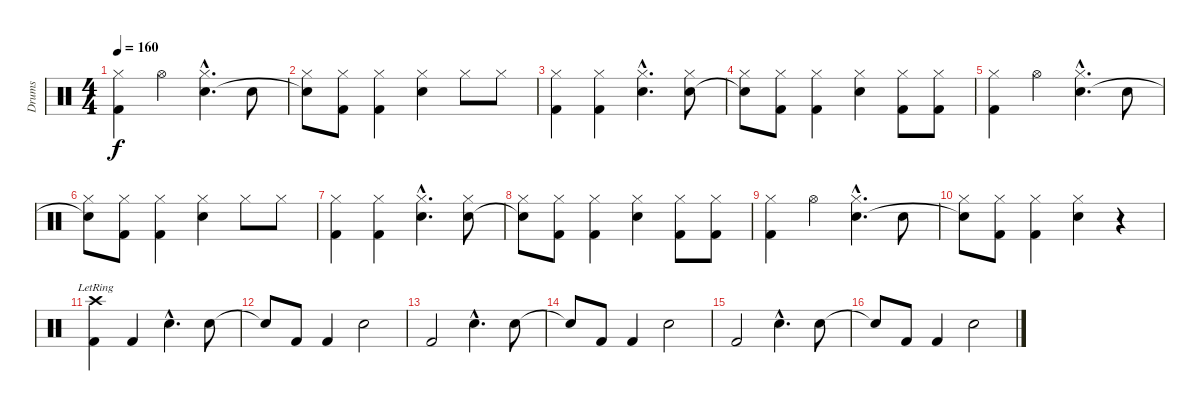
\track ("Drums" "Drums") {instrument percussion}
\staff {score}
\articulation defaults
\ts (4 4)
\tempo 160
\clef neutral
\ks c
("Hi-Hat (closed)" "Kick (hit) 2").4{dy f} "Hi-Hat (open)".4 ("Hi-Hat (closed)"{hac} "Snare (hit) 2"{hac}).4{d} "Snare (hit) 2".8 |
("Hi-Hat (closed)" "Snare (hit) 2"{t}).8 ("Hi-Hat (closed)" "Kick (hit) 2").8 ("Hi-Hat (closed)" "Kick (hit) 2").4 ("Hi-Hat (closed)" "Snare (hit) 2").4 "Hi-Hat (closed)".8 "Hi-Hat (closed)".8 |
("Hi-Hat (closed)" "Kick (hit) 2").4 ("Hi-Hat (closed)" "Kick (hit) 2").4 ("Hi-Hat (closed)"{hac} "Snare (hit) 2"{hac}).4{d} ("Hi-Hat (closed)" "Snare (hit) 2").8 |
("Hi-Hat (closed)" "Snare (hit) 2"{t}).8 ("Hi-Hat (closed)" "Kick (hit) 2").8 ("Hi-Hat (closed)" "Kick (hit) 2").4 ("Hi-Hat (closed)" "Snare (hit) 2").4 ("Hi-Hat (closed)" "Kick (hit) 2").8 ("Hi-Hat (closed)" "Kick (hit) 2").8 |
("Hi-Hat (closed)" "Kick (hit) 2").4 "Hi-Hat (open)".4 ("Hi-Hat (closed)"{hac} "Snare (hit) 2"{hac}).4{d} "Snare (hit) 2".8 |
("Hi-Hat (closed)" "Snare (hit) 2"{t}).8 ("Hi-Hat (closed)" "Kick (hit) 2").8 ("Hi-Hat (closed)" "Kick (hit) 2").4 ("Hi-Hat (closed)" "Snare (hit) 2").4 "Hi-Hat (closed)".8 "Hi-Hat (closed)".8 |
("Hi-Hat (closed)" "Kick (hit) 2").4 ("Hi-Hat (closed)" "Kick (hit) 2").4 ("Hi-Hat (closed)"{hac} "Snare (hit) 2"{hac}).4{d} ("Hi-Hat (closed)" "Snare (hit) 2").8 |
("Hi-Hat (closed)" "Snare (hit) 2"{t}).8 ("Hi-Hat (closed)" "Kick (hit) 2").8 ("Hi-Hat (closed)" "Kick (hit) 2").4 ("Hi-Hat (closed)" "Snare (hit) 2").4 ("Hi-Hat (closed)" "Kick (hit) 2").8 ("Hi-Hat (closed)" "Kick (hit) 2").8 |
("Hi-Hat (closed)" "Kick (hit) 2").4 "Hi-Hat (open)".4 ("Hi-Hat (closed)"{hac} "Snare (hit) 2"{hac}).4{d} "Snare (hit) 2".8 |
("Hi-Hat (closed)" "Snare (hit) 2"{t}).8 ("Hi-Hat (closed)" "Kick (hit) 2").8 ("Hi-Hat (closed)" "Kick (hit) 2").4 ("Hi-Hat (closed)" "Snare (hit) 2").4 r.4 |
("Crash high (hit)"{lr} "Kick (hit) 2").4 "Kick (hit) 2".4 "Snare (hit) 2"{hac}.4{d} "Snare (hit) 2".8 |
"Snare (hit) 2"{t}.8 "Kick (hit) 2".8 "Kick (hit) 2".4 "Snare (hit) 2".2 |
"Kick (hit) 2".2 "Snare (hit) 2"{hac}.4{d} "Snare (hit) 2".8 |
"Snare (hit) 2"{t}.8 "Kick (hit) 2".8 "Kick (hit) 2".4 "Snare (hit) 2".2 |
"Kick (hit) 2".2 "Snare (hit) 2"{hac}.4{d} "Snare (hit) 2".8 |
"Snare (hit) 2"{t}.8 "Kick (hit) 2".8 "Kick (hit) 2".4 "Snare (hit) 2".2
